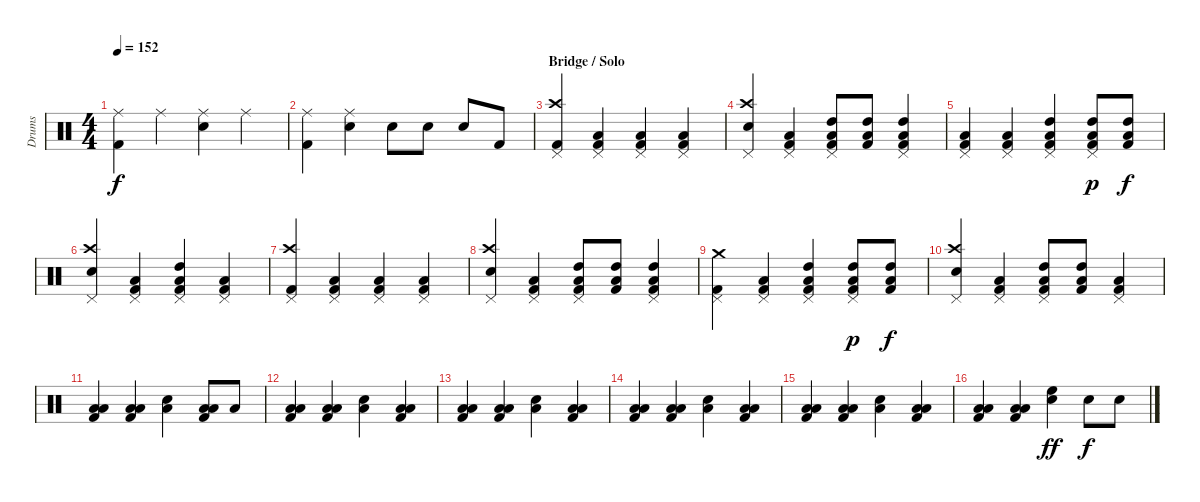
\track ("Drums" "Drums") {instrument percussion}
\staff {score}
\articulation defaults
\ts (4 4)
\tempo 152
\clef neutral
\ks c
("Ride (middle)" "Kick (hit) 2").4{dy f} "Ride (middle)".4 ("Ride (middle)" "Electric Snare (hit)").4 "Ride (middle)".4 |
("Ride (middle)" "Kick (hit) 2").4 ("Ride (middle)" "Electric Snare (hit)").4 "Electric Snare (hit)".8 "Electric Snare (hit)".8 "Electric Snare (hit)".8 "Kick (hit) 2".8 |
\section ("" "Bridge / Solo")
("Crash high (hit)" "Pedal Hi-Hat (hit)" "Kick (hit) 2").4 ("Low Floor Tom (hit)" "Kick (hit) 2" "Pedal Hi-Hat (hit)").4 ("Low Floor Tom (hit)" "Kick (hit) 2" "Pedal Hi-Hat (hit)").4 ("Low Floor Tom (hit)" "Kick (hit) 2" "Pedal Hi-Hat (hit)").4 |
("Crash high (hit)" "Pedal Hi-Hat (hit)" "Electric Snare (hit)").4 ("Low Floor Tom (hit)" "Kick (hit) 2" "Pedal Hi-Hat (hit)").4 ("Pedal Hi-Hat (hit)" "Kick (hit) 2" "High Tom (hit)" "Low Tom (hit)").8 ("Kick (hit) 2" "High Tom (hit)" "Low Tom (hit)").8 ("Pedal Hi-Hat (hit)" "Kick (hit) 2" "High Tom (hit)" "Low Tom (hit)").4 |
("Low Floor Tom (hit)" "Kick (hit) 2" "Pedal Hi-Hat (hit)").4 ("Low Floor Tom (hit)" "Kick (hit) 2" "Pedal Hi-Hat (hit)").4 ("Kick (hit) 2" "High Tom (hit)" "Low Tom (hit)" "Pedal Hi-Hat (hit)").4 ("High Tom (hit)" "Kick (hit) 2" "Low Tom (hit)" "Pedal Hi-Hat (hit)").8{dy p} ("High Tom (hit)" "Low Tom (hit)" "Kick (hit) 2").8{dy f} |
("Crash high (hit)" "Pedal Hi-Hat (hit)" "Electric Snare (hit)").4 ("Low Floor Tom (hit)" "Kick (hit) 2" "Pedal Hi-Hat (hit)").4 ("Kick (hit) 2" "High Tom (hit)" "Low Tom (hit)" "Pedal Hi-Hat (hit)").4 ("Kick (hit) 2" "Low Tom (hit)" "Pedal Hi-Hat (hit)").4 |
("Crash high (hit)" "Pedal Hi-Hat (hit)" "Kick (hit) 2").4 ("Pedal Hi-Hat (hit)" "Low Floor Tom (hit)" "Kick (hit) 2").4 ("Pedal Hi-Hat (hit)" "Low Floor Tom (hit)" "Kick (hit) 2").4 ("Pedal Hi-Hat (hit)" "Low Floor Tom (hit)" "Kick (hit) 2").4 |
("Crash high (hit)" "Pedal Hi-Hat (hit)" "Electric Snare (hit)").4 ("Kick (hit) 2" "Low Tom (hit)" "Pedal Hi-Hat (hit)").4 ("Pedal Hi-Hat (hit)" "Kick (hit) 2" "High Tom (hit)" "Low Tom (hit)").8 ("Kick (hit) 2" "High Tom (hit)" "Low Tom (hit)").8 ("Pedal Hi-Hat (hit)" "Kick (hit) 2" "High Tom (hit)" "Low Tom (hit)").4 |
("Crash medium (hit)" "Kick (hit) 2" "Pedal Hi-Hat (hit)").4 ("Low Floor Tom (hit)" "Kick (hit) 2" "Pedal Hi-Hat (hit)").4 ("Kick (hit) 2" "High Tom (hit)" "Low Tom (hit)" "Pedal Hi-Hat (hit)").4 ("High Tom (hit)" "Kick (hit) 2" "Low Tom (hit)" "Pedal Hi-Hat (hit)").8{dy p} ("High Tom (hit)" "Low Tom (hit)" "Kick (hit) 2").8{dy f} |
("Crash high (hit)" "Pedal Hi-Hat (hit)" "Electric Snare (hit)").4 ("Low Floor Tom (hit)" "Kick (hit) 2" "Pedal Hi-Hat (hit)").4 ("Kick (hit) 2" "High Tom (hit)" "Low Tom (hit)" "Pedal Hi-Hat (hit)").8 ("Kick (hit) 2" "High Tom (hit)" "Low Tom (hit)").8 ("Kick (hit) 2" "Low Tom (hit)" "Pedal Hi-Hat (hit)").4 |
("Low Tom (hit)" "Low Floor Tom (hit)" "Kick (hit) 2").4 ("Low Tom (hit)" "Low Floor Tom (hit)" "Kick (hit) 2").4 ("Low Tom (hit)" "Electric Snare (hit)").4 ("Low Tom (hit)" "Low Floor Tom (hit)" "Kick (hit) 2").8 "Low Tom (hit)".8 |
("Low Tom (hit)" "Low Floor Tom (hit)" "Kick (hit) 2").4 ("Low Tom (hit)" "Low Floor Tom (hit)" "Kick (hit) 2").4 ("Low Tom (hit)" "Electric Snare (hit)").4 ("Low Tom (hit)" "Low Floor Tom (hit)" "Kick (hit) 2").4 |
("Low Tom (hit)" "Low Floor Tom (hit)" "Kick (hit) 2").4 ("Low Tom (hit)" "Low Floor Tom (hit)" "Kick (hit) 2").4 ("Low Tom (hit)" "Electric Snare (hit)").4 ("Low Tom (hit)" "Low Floor Tom (hit)" "Kick (hit) 2").4 |
("Low Tom (hit)" "Low Floor Tom (hit)" "Kick (hit) 2").4 ("Low Tom (hit)" "Low Floor Tom (hit)" "Kick (hit) 2").4 ("Low Tom (hit)" "Electric Snare (hit)").4 ("Low Tom (hit)" "Low Floor Tom (hit)" "Kick (hit) 2").4 |
("Low Tom (hit)" "Low Floor Tom (hit)" "Kick (hit) 2").4 ("Low Tom (hit)" "Low Floor Tom (hit)" "Kick (hit) 2").4 ("Low Tom (hit)" "Electric Snare (hit)").4 ("Low Tom (hit)" "Low Floor Tom (hit)" "Kick (hit) 2").4 |
("Low Tom (hit)" "Low Floor Tom (hit)" "Kick (hit) 2").4 ("Low Tom (hit)" "Low Floor Tom (hit)" "Kick (hit) 2").4 ("High Floor Tom (hit)" "Electric Snare (hit)").4{dy ff} "Electric Snare (hit)".8{dy f} "Electric Snare (hit)".8
